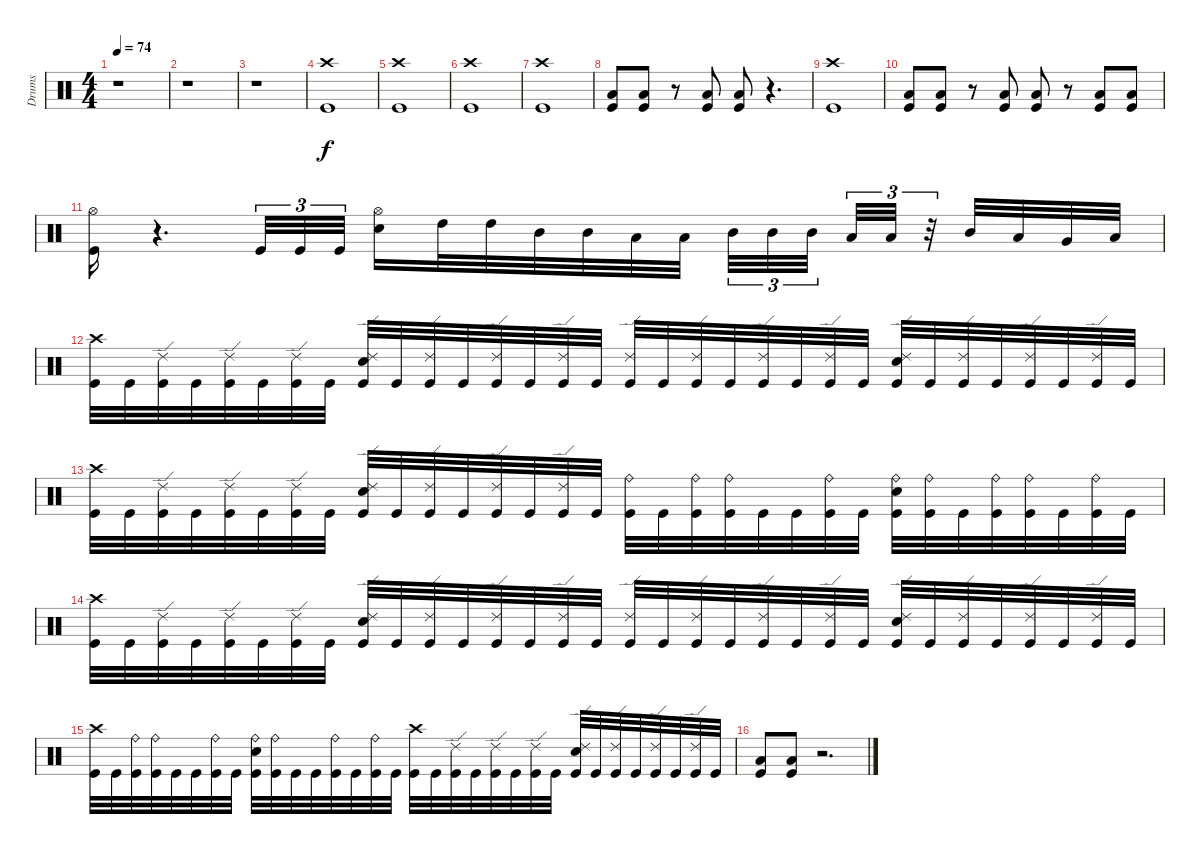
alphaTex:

\track ("Drums" "Drums") {instrument percussion}
\staff {score}
\articulation defaults
\ts (4 4)
\tempo 74
\clef neutral
\ks c
r.1{dy f} |
r.1 |
r.1 |
("Crash high (hit)" "Kick (hit)").1 |
("Crash high (hit)" "Kick (hit)").1 |
("Crash high (hit)" "Kick (hit)").1 |
("Crash high (hit)" "Kick (hit)").1 |
("Low Floor Tom (hit)" "Kick (hit)").8 ("Low Floor Tom (hit)" "Kick (hit)").8 r.8 ("Low Floor Tom (hit)" "Kick (hit)").8 ("Low Floor Tom (hit)" "Kick (hit)").8 r.4{d} |
("Crash high (hit)" "Kick (hit)").1 |
("Low Floor Tom (hit)" "Kick (hit)").8 ("Low Floor Tom (hit)" "Kick (hit)").8 r.8 ("Low Floor Tom (hit)" "Kick (hit)").8 ("Low Floor Tom (hit)" "Kick (hit)").8 r.8 ("Low Floor Tom (hit)" "Kick (hit)").8 ("Low Floor Tom (hit)" "Kick (hit)").8 |
("Hi-Hat (open)" "Kick (hit)").16 r.4{d} "Kick (hit)".32{tu (3 2)} "Kick (hit)".32{tu (3 2)} "Kick (hit)".32{tu (3 2)} ("Hi-Hat (open)" "Snare (hit) 2").16 "High Tom (hit)".32 "High Tom (hit)".32 "Mid Tom (hit)".32 "Mid Tom (hit)".32 "Low Tom (hit)".32 "Low Tom (hit)".32 "Mid Tom (hit)".32{tu (3 2)} "Mid Tom (hit)".32{tu (3 2)} "Mid Tom (hit)".32{tu (3 2)} "Low Tom (hit)".32{tu (3 2)} "Low Tom (hit)".32{tu (3 2)} r.32{tu (3 2)} "Mid Tom (hit)".32 "Low Tom (hit)".32 "Very Low Tom (hit)".32 "Low Floor Tom (hit)".32 |
\section ("" "")
("Crash high (hit)" "Kick (hit)").32 "Kick (hit)".32 ("Ride (edge) 2" "Kick (hit)").32 "Kick (hit)".32 ("Ride (edge) 2" "Kick (hit)").32 "Kick (hit)".32 ("Ride (edge) 2" "Kick (hit)").32 "Kick (hit)".32 ("Ride (edge) 2" "Snare (hit) 2" "Kick (hit)").32 "Kick (hit)".32 ("Ride (edge) 2" "Kick (hit)").32 "Kick (hit)".32 ("Ride (edge) 2" "Kick (hit)").32 "Kick (hit)".32 ("Ride (edge) 2" "Kick (hit)").32 "Kick (hit)".32 ("Ride (edge) 2" "Kick (hit)").32 "Kick (hit)".32 ("Ride (edge) 2" "Kick (hit)").32 "Kick (hit)".32 ("Ride (edge) 2" "Kick (hit)").32 "Kick (hit)".32 ("Ride (edge) 2" "Kick (hit)").32 "Kick (hit)".32 ("Ride (edge) 2" "Snare (hit) 2" "Kick (hit)").32 "Kick (hit)".32 ("Ride (edge) 2" "Kick (hit)").32 "Kick (hit)".32 ("Ride (edge) 2" "Kick (hit)").32 "Kick (hit)".32 ("Ride (edge) 2" "Kick (hit)").32 "Kick (hit)".32 |
("Crash high (hit)" "Kick (hit)").32 "Kick (hit)".32 ("Ride (edge) 2" "Kick (hit)").32 "Kick (hit)".32 ("Ride (edge) 2" "Kick (hit)").32 "Kick (hit)".32 ("Ride (edge) 2" "Kick (hit)").32 "Kick (hit)".32 ("Ride (edge) 2" "Snare (hit) 2" "Kick (hit)").32 "Kick (hit)".32 ("Ride (edge) 2" "Kick (hit)").32 "Kick (hit)".32 ("Ride (edge) 2" "Kick (hit)").32 "Kick (hit)".32 ("Ride (edge) 2" "Kick (hit)").32 "Kick (hit)".32 ("Ride (bell)" "Kick (hit)").32 "Kick (hit)".32 ("Ride (bell)" "Kick (hit)").32 ("Ride (bell)" "Kick (hit)").32 "Kick (hit)".32 "Kick (hit)".32 ("Ride (bell)" "Kick (hit)").32 "Kick (hit)".32 ("Ride (bell)" "Snare (hit) 2" "Kick (hit)").32 ("Ride (bell)" "Kick (hit)").32 "Kick (hit)".32 ("Ride (bell)" "Kick (hit)").32 ("Ride (bell)" "Kick (hit)").32 "Kick (hit)".32 ("Ride (bell)" "Kick (hit)").32 "Kick (hit)".32 |
("Crash high (hit)" "Kick (hit)").32 "Kick (hit)".32 ("Ride (edge) 2" "Kick (hit)").32 "Kick (hit)".32 ("Ride (edge) 2" "Kick (hit)").32 "Kick (hit)".32 ("Ride (edge) 2" "Kick (hit)").32 "Kick (hit)".32 ("Ride (edge) 2" "Snare (hit) 2" "Kick (hit)").32 "Kick (hit)".32 ("Ride (edge) 2" "Kick (hit)").32 "Kick (hit)".32 ("Ride (edge) 2" "Kick (hit)").32 "Kick (hit)".32 ("Ride (edge) 2" "Kick (hit)").32 "Kick (hit)".32 ("Ride (edge) 2" "Kick (hit)").32 "Kick (hit)".32 ("Ride (edge) 2" "Kick (hit)").32 "Kick (hit)".32 ("Ride (edge) 2" "Kick (hit)").32 "Kick (hit)".32 ("Ride (edge) 2" "Kick (hit)").32 "Kick (hit)".32 ("Ride (edge) 2" "Snare (hit) 2" "Kick (hit)").32 "Kick (hit)".32 ("Ride (edge) 2" "Kick (hit)").32 "Kick (hit)".32 ("Ride (edge) 2" "Kick (hit)").32 "Kick (hit)".32 ("Ride (edge) 2" "Kick (hit)").32 "Kick (hit)".32 |
("Crash high (hit)" "Kick (hit)").32 "Kick (hit)".32 ("Ride (bell)" "Kick (hit)").32 ("Ride (bell)" "Kick (hit)").32 "Kick (hit)".32 "Kick (hit)".32 ("Ride (bell)" "Kick (hit)").32 "Kick (hit)".32 ("Ride (bell)" "Snare (hit) 2" "Kick (hit)").32 ("Ride (bell)" "Kick (hit)").32 "Kick (hit)".32 "Kick (hit)".32 ("Ride (bell)" "Kick (hit)").32 "Kick (hit)".32 ("Ride (bell)" "Kick (hit)").32 "Kick (hit)".32 ("Crash high (hit)" "Kick (hit)").32 "Kick (hit)".32 ("Ride (edge) 2" "Kick (hit)").32 "Kick (hit)".32 ("Ride (edge) 2" "Kick (hit)").32 "Kick (hit)".32 ("Ride (edge) 2" "Kick (hit)").32 "Kick (hit)".32 ("Ride (edge) 2" "Snare (hit) 2" "Kick (hit)").32 "Kick (hit)".32 ("Ride (edge) 2" "Kick (hit)").32 "Kick (hit)".32 ("Ride (edge) 2" "Kick (hit)").32 "Kick (hit)".32 ("Ride (edge) 2" "Kick (hit)").32 "Kick (hit)".32 |
("Low Floor Tom (hit)" "Kick (hit)").8 ("Low Floor Tom (hit)" "Kick (hit)").8 r.2{d}
